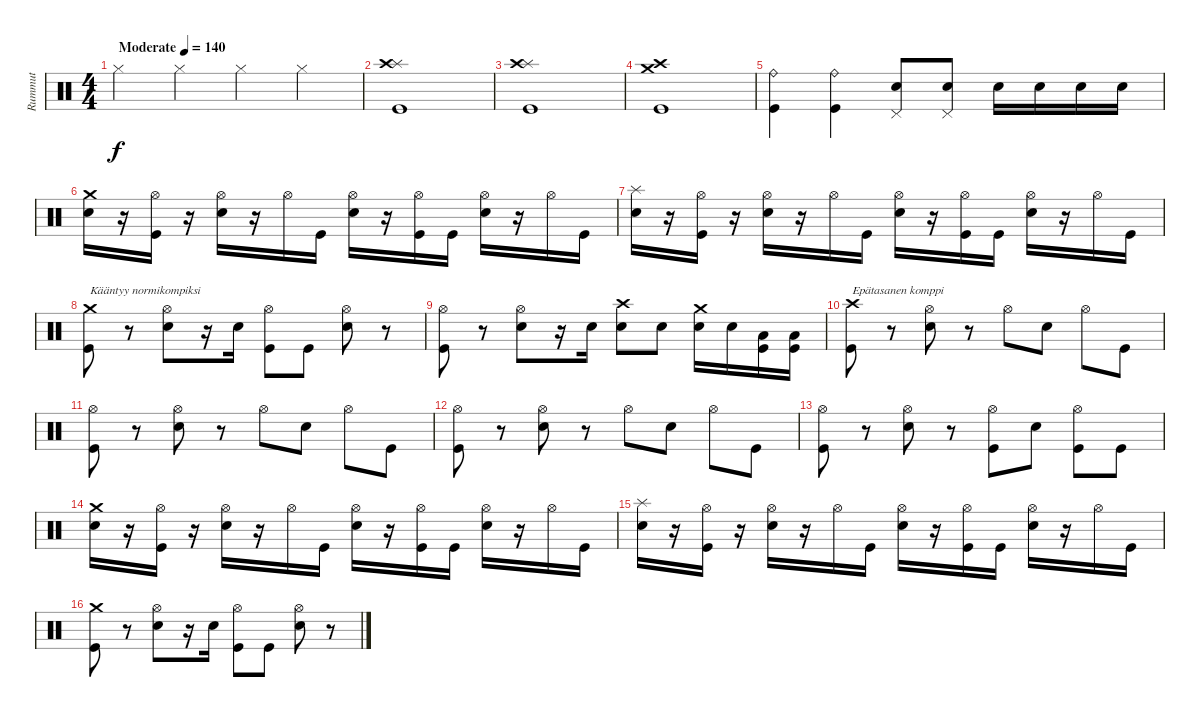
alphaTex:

\track ("Rummut" "Rummut") {instrument percussion}
\staff {score}
\articulation defaults
\ts (4 4)
\tempo (140 "Moderate")
\clef neutral
\ks c "Hi-Hat (closed)".4{dy f} "Hi-Hat (closed)".4 "Hi-Hat (closed)".4 "Hi-Hat (closed)".4
|
("Splash (hit)" "Crash high (hit)" "Kick (hit)").1 |
("Splash (hit)" "Crash high (hit)" "Kick (hit)").1 |
("Crash high (hit)" "Crash medium (hit)" "Kick (hit)").1 |
("Ride (bell)" "Kick (hit)").4 ("Ride (bell)" "Kick (hit)").4 ("Pedal Hi-Hat (hit)" "Snare (hit) 2").8 ("Pedal Hi-Hat (hit)" "Snare (hit) 2").8 "Snare (hit) 2".16 "Snare (hit) 2".16 "Snare (hit) 2".16 "Snare (hit) 2".16 |
("Crash medium (hit)" "Snare (hit) 2").16 r.16 ("Hi-Hat (open)" "Kick (hit)").16 r.16 ("Hi-Hat (open)" "Snare (hit) 2").16 r.16 "Hi-Hat (open)".16 "Kick (hit)".16 ("Hi-Hat (open)" "Snare (hit) 2").16 r.16 ("Hi-Hat (open)" "Kick (hit)").16 "Kick (hit)".16 ("Hi-Hat (open)" "Snare (hit) 2").16 r.16 "Hi-Hat (open)".16 "Kick (hit)".16 |
("Splash (hit)" "Snare (hit) 2").16 r.16 ("Hi-Hat (open)" "Kick (hit)").16 r.16 ("Hi-Hat (open)" "Snare (hit) 2").16 r.16 "Hi-Hat (open)".16 "Kick (hit)".16 ("Hi-Hat (open)" "Snare (hit) 2").16 r.16 ("Hi-Hat (open)" "Kick (hit)").16 "Kick (hit)".16 ("Hi-Hat (open)" "Snare (hit) 2").16 r.16 "Hi-Hat (open)".16 "Kick (hit)".16 |
("Crash medium (hit)" "Kick (hit)").8{txt "Kääntyy normikompiksi"} r.8 ("Hi-Hat (open)" "Snare (hit) 2").8 r.16 "Snare (hit) 2".16 ("Hi-Hat (open)" "Kick (hit)").8 "Kick (hit)".8 ("Hi-Hat (open)" "Snare (hit) 2").8 r.8 |
("Hi-Hat (open)" "Kick (hit)").8 r.8 ("Hi-Hat (open)" "Snare (hit) 2").8 r.16 "Snare (hit) 2".16 ("Crash high (hit)" "Snare (hit) 2").8 "Snare (hit) 2".8 ("Crash medium (hit)" "Snare (hit) 2").16 "Snare (hit) 2".16 ("Low Tom (hit)" "Kick (hit)").16 ("Low Tom (hit)" "Kick (hit)").16 |
("Crash high (hit)" "Kick (hit)").8{txt "Epätasanen komppi"} r.8 ("Hi-Hat (open)" "Snare (hit) 2").8 r.8 "Hi-Hat (open)".8 "Snare (hit) 2".8 "Hi-Hat (open)".8 "Kick (hit)".8 |
("Hi-Hat (open)" "Kick (hit)").8 r.8 ("Hi-Hat (open)" "Snare (hit) 2").8 r.8 "Hi-Hat (open)".8 "Snare (hit) 2".8 "Hi-Hat (open)".8 "Kick (hit)".8 |
("Hi-Hat (open)" "Kick (hit)").8 r.8 ("Hi-Hat (open)" "Snare (hit) 2").8 r.8 "Hi-Hat (open)".8 "Snare (hit) 2".8 "Hi-Hat (open)".8 "Kick (hit)".8 |
("Hi-Hat (open)" "Kick (hit)").8 r.8 ("Hi-Hat (open)" "Snare (hit) 2").8 r.8 ("Hi-Hat (open)" "Kick (hit)").8 "Snare (hit) 2".8 ("Hi-Hat (open)" "Kick (hit)").8 "Kick (hit)".8 |
("Crash medium (hit)" "Snare (hit) 2").16 r.16 ("Hi-Hat (open)" "Kick (hit)").16 r.16 ("Hi-Hat (open)" "Snare (hit) 2").16 r.16 "Hi-Hat (open)".16 "Kick (hit)".16 ("Hi-Hat (open)" "Snare (hit) 2").16 r.16 ("Hi-Hat (open)" "Kick (hit)").16 "Kick (hit)".16 ("Hi-Hat (open)" "Snare (hit) 2").16 r.16 "Hi-Hat (open)".16 "Kick (hit)".16 |
("Splash (hit)" "Snare (hit) 2").16 r.16 ("Hi-Hat (open)" "Kick (hit)").16 r.16 ("Hi-Hat (open)" "Snare (hit) 2").16 r.16 "Hi-Hat (open)".16 "Kick (hit)".16 ("Hi-Hat (open)" "Snare (hit) 2").16 r.16 ("Hi-Hat (open)" "Kick (hit)").16 "Kick (hit)".16 ("Hi-Hat (open)" "Snare (hit) 2").16 r.16 "Hi-Hat (open)".16 "Kick (hit)".16 |
("Crash medium (hit)" "Kick (hit)").8 r.8 ("Hi-Hat (open)" "Snare (hit) 2").8 r.16 "Snare (hit) 2".16 ("Hi-Hat (open)" "Kick (hit)").8 "Kick (hit)".8 ("Hi-Hat (open)" "Snare (hit) 2").8 r.8
